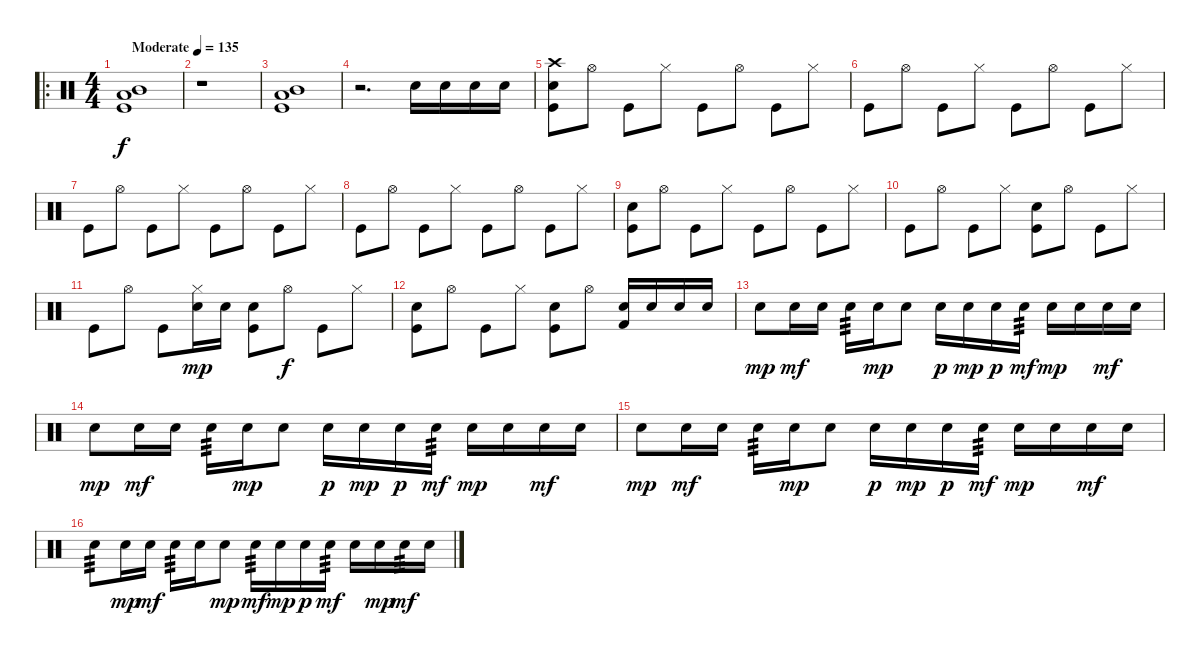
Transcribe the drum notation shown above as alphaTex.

\track "" {instrument percussion}
\staff {score}
\articulation defaults
\ro
\ts (4 4)
\tempo (135 "Moderate")
\clef neutral
\ks c
("Mid Tom (hit)" "Low Tom (hit)" "Kick (hit)").1{dy f} |
r.1 |
("Mid Tom (hit)" "Low Tom (hit)" "Kick (hit)").1 |
r.2{d} "Snare (hit) 2".16 "Snare (hit) 2".16 "Snare (hit) 2".16 "Snare (hit) 2".16 |
("Crash high (hit)" "Snare (hit) 2" "Kick (hit)").8 "Hi-Hat (open)".8 "Kick (hit)".8 "Hi-Hat (closed)".8 "Kick (hit)".8 "Hi-Hat (open)".8 "Kick (hit)".8 "Hi-Hat (closed)".8 |
"Kick (hit)".8 "Hi-Hat (open)".8 "Kick (hit)".8 "Hi-Hat (closed)".8 "Kick (hit)".8 "Hi-Hat (open)".8 "Kick (hit)".8 "Hi-Hat (closed)".8 |
"Kick (hit)".8 "Hi-Hat (open)".8 "Kick (hit)".8 "Hi-Hat (closed)".8 "Kick (hit)".8 "Hi-Hat (open)".8 "Kick (hit)".8 "Hi-Hat (closed)".8 |
"Kick (hit)".8 "Hi-Hat (open)".8 "Kick (hit)".8 "Hi-Hat (closed)".8 "Kick (hit)".8 "Hi-Hat (open)".8 "Kick (hit)".8 "Hi-Hat (closed)".8 |
("Snare (hit) 2" "Kick (hit)").8 "Hi-Hat (open)".8 "Kick (hit)".8 "Hi-Hat (closed)".8 "Kick (hit)".8 "Hi-Hat (open)".8 "Kick (hit)".8 "Hi-Hat (closed)".8 |
"Kick (hit)".8 "Hi-Hat (open)".8 "Kick (hit)".8 "Hi-Hat (closed)".8 ("Snare (hit) 2" "Kick (hit)").8 "Hi-Hat (open)".8 "Kick (hit)".8 "Hi-Hat (closed)".8 |
"Kick (hit)".8 "Hi-Hat (open)".8 "Kick (hit)".8 ("Hi-Hat (closed)" "Snare (hit) 2").16{dy mp} "Snare (hit) 2".16 ("Snare (hit) 2" "Kick (hit)").8 "Hi-Hat (open)".8{dy f} "Kick (hit)".8 "Hi-Hat (closed)".8 |
("Snare (hit) 2" "Kick (hit)").8 "Hi-Hat (open)".8 "Kick (hit)".8 "Hi-Hat (closed)".8 ("Snare (hit) 2" "Kick (hit)").8 "Hi-Hat (open)".8 ("Snare (hit) 2" "Kick (hit) 2").16 "Snare (hit) 2".16 "Snare (hit) 2".16 "Snare (hit) 2".16 |
"Snare (hit) 2".8{dy mp} "Snare (hit) 2".16{dy mf} "Snare (hit) 2".16 "Snare (hit) 2".16{tp 3} "Snare (hit) 2".16{dy mp} "Snare (hit) 2".8 "Snare (hit) 2".16{dy p} "Snare (hit) 2".16{dy mp} "Snare (hit) 2".16{dy p} "Snare (hit) 2".16{tp 3 dy mf} "Snare (hit) 2".16{dy mp} "Snare (hit) 2".16 "Snare (hit) 2".16{dy mf} "Snare (hit) 2".16 |
"Snare (hit) 2".8{dy mp} "Snare (hit) 2".16{dy mf} "Snare (hit) 2".16 "Snare (hit) 2".16{tp 3} "Snare (hit) 2".16{dy mp} "Snare (hit) 2".8 "Snare (hit) 2".16{dy p} "Snare (hit) 2".16{dy mp} "Snare (hit) 2".16{dy p} "Snare (hit) 2".16{tp 3 dy mf} "Snare (hit) 2".16{dy mp} "Snare (hit) 2".16 "Snare (hit) 2".16{dy mf} "Snare (hit) 2".16 |
"Snare (hit) 2".8{dy mp} "Snare (hit) 2".16{dy mf} "Snare (hit) 2".16 "Snare (hit) 2".16{tp 3} "Snare (hit) 2".16{dy mp} "Snare (hit) 2".8 "Snare (hit) 2".16{dy p} "Snare (hit) 2".16{dy mp} "Snare (hit) 2".16{dy p} "Snare (hit) 2".16{tp 3 dy mf} "Snare (hit) 2".16{dy mp} "Snare (hit) 2".16 "Snare (hit) 2".16{dy mf} "Snare (hit) 2".16 |
"Snare (hit) 2".8{tp 3} "Snare (hit) 2".16{dy mp} "Snare (hit) 2".16{dy mf} "Snare (hit) 2".16{tp 3} "Snare (hit) 2".16 "Snare (hit) 2".8{dy mp} "Snare (hit) 2".16{tp 3 dy mf} "Snare (hit) 2".16{dy mp} "Snare (hit) 2".16{dy p} "Snare (hit) 2".16{tp 3 dy mf} "Snare (hit) 2".16 "Snare (hit) 2".16{dy mp} "Snare (hit) 2".16{tp 3 dy mf} "Snare (hit) 2".16
